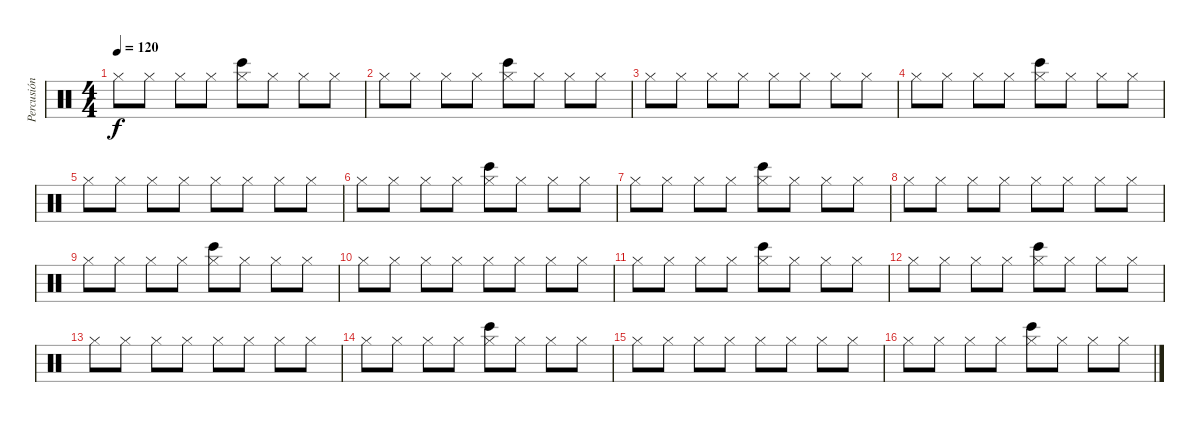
\track ("Percusión" "Percusión") {instrument percussion}
\staff {score}
\articulation defaults
\ts (4 4)
\tempo 120
\clef neutral
\ks c "Hi-Hat (closed)".8{dy f} "Hi-Hat (closed)".8 "Hi-Hat (closed)".8 "Hi-Hat (closed)".8
("Hi-Hat (closed)" "Bongo High (hit)").8 "Hi-Hat (closed)".8 "Hi-Hat (closed)".8 "Hi-Hat (closed)".8 |
"Hi-Hat (closed)".8 "Hi-Hat (closed)".8 "Hi-Hat (closed)".8 "Hi-Hat (closed)".8 ("Hi-Hat (closed)" "Bongo High (hit)").8 "Hi-Hat (closed)".8 "Hi-Hat (closed)".8 "Hi-Hat (closed)".8 |
"Hi-Hat (closed)".8 "Hi-Hat (closed)".8 "Hi-Hat (closed)".8 "Hi-Hat (closed)".8 "Hi-Hat (closed)".8 "Hi-Hat (closed)".8 "Hi-Hat (closed)".8 "Hi-Hat (closed)".8 |
"Hi-Hat (closed)".8 "Hi-Hat (closed)".8 "Hi-Hat (closed)".8 "Hi-Hat (closed)".8 ("Hi-Hat (closed)" "Bongo High (hit)").8 "Hi-Hat (closed)".8 "Hi-Hat (closed)".8 "Hi-Hat (closed)".8 |
"Hi-Hat (closed)".8 "Hi-Hat (closed)".8 "Hi-Hat (closed)".8 "Hi-Hat (closed)".8 "Hi-Hat (closed)".8 "Hi-Hat (closed)".8 "Hi-Hat (closed)".8 "Hi-Hat (closed)".8 |
"Hi-Hat (closed)".8 "Hi-Hat (closed)".8 "Hi-Hat (closed)".8 "Hi-Hat (closed)".8 ("Hi-Hat (closed)" "Bongo High (hit)").8 "Hi-Hat (closed)".8 "Hi-Hat (closed)".8 "Hi-Hat (closed)".8 |
"Hi-Hat (closed)".8 "Hi-Hat (closed)".8 "Hi-Hat (closed)".8 "Hi-Hat (closed)".8 ("Hi-Hat (closed)" "Bongo High (hit)").8 "Hi-Hat (closed)".8 "Hi-Hat (closed)".8 "Hi-Hat (closed)".8 |
"Hi-Hat (closed)".8 "Hi-Hat (closed)".8 "Hi-Hat (closed)".8 "Hi-Hat (closed)".8 "Hi-Hat (closed)".8 "Hi-Hat (closed)".8 "Hi-Hat (closed)".8 "Hi-Hat (closed)".8 |
"Hi-Hat (closed)".8 "Hi-Hat (closed)".8 "Hi-Hat (closed)".8 "Hi-Hat (closed)".8 ("Hi-Hat (closed)" "Bongo High (hit)").8 "Hi-Hat (closed)".8 "Hi-Hat (closed)".8 "Hi-Hat (closed)".8 |
"Hi-Hat (closed)".8 "Hi-Hat (closed)".8 "Hi-Hat (closed)".8 "Hi-Hat (closed)".8 "Hi-Hat (closed)".8 "Hi-Hat (closed)".8 "Hi-Hat (closed)".8 "Hi-Hat (closed)".8 |
"Hi-Hat (closed)".8 "Hi-Hat (closed)".8 "Hi-Hat (closed)".8 "Hi-Hat (closed)".8 ("Hi-Hat (closed)" "Bongo High (hit)").8 "Hi-Hat (closed)".8 "Hi-Hat (closed)".8 "Hi-Hat (closed)".8 |
"Hi-Hat (closed)".8 "Hi-Hat (closed)".8 "Hi-Hat (closed)".8 "Hi-Hat (closed)".8 ("Hi-Hat (closed)" "Bongo High (hit)").8 "Hi-Hat (closed)".8 "Hi-Hat (closed)".8 "Hi-Hat (closed)".8 |
"Hi-Hat (closed)".8 "Hi-Hat (closed)".8 "Hi-Hat (closed)".8 "Hi-Hat (closed)".8 "Hi-Hat (closed)".8 "Hi-Hat (closed)".8 "Hi-Hat (closed)".8 "Hi-Hat (closed)".8 |
"Hi-Hat (closed)".8 "Hi-Hat (closed)".8 "Hi-Hat (closed)".8 "Hi-Hat (closed)".8 ("Hi-Hat (closed)" "Bongo High (hit)").8 "Hi-Hat (closed)".8 "Hi-Hat (closed)".8 "Hi-Hat (closed)".8 |
"Hi-Hat (closed)".8 "Hi-Hat (closed)".8 "Hi-Hat (closed)".8 "Hi-Hat (closed)".8 "Hi-Hat (closed)".8 "Hi-Hat (closed)".8 "Hi-Hat (closed)".8 "Hi-Hat (closed)".8 |
"Hi-Hat (closed)".8 "Hi-Hat (closed)".8 "Hi-Hat (closed)".8 "Hi-Hat (closed)".8 ("Hi-Hat (closed)" "Bongo High (hit)").8 "Hi-Hat (closed)".8 "Hi-Hat (closed)".8 "Hi-Hat (closed)".8
